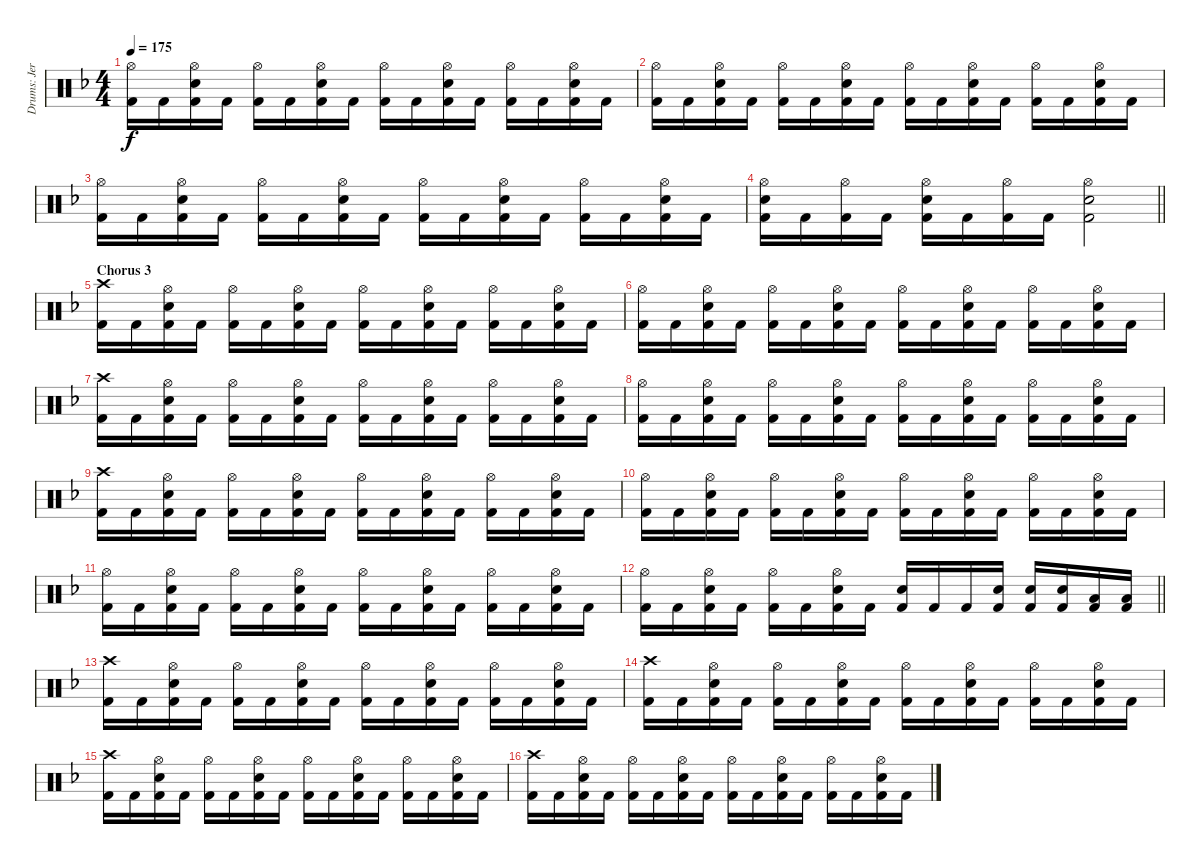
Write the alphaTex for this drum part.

\track ("Drums: Jere Luokkamäki" "Drums: Jer") {instrument percussion}
\staff {score}
\articulation defaults
\ts (4 4)
\tempo 175
\clef neutral
\ks dminor
("Hi-Hat (open)" "Kick (hit) 2").16{dy f} "Kick (hit) 2".16 ("Hi-Hat (open)" "Electric Snare (hit)" "Kick (hit) 2").16 "Kick (hit) 2".16 ("Hi-Hat (open)" "Kick (hit) 2").16 "Kick (hit) 2".16 ("Hi-Hat (open)" "Electric Snare (hit)" "Kick (hit) 2").16 "Kick (hit) 2".16 ("Hi-Hat (open)" "Kick (hit) 2").16 "Kick (hit) 2".16 ("Hi-Hat (open)" "Electric Snare (hit)" "Kick (hit) 2").16 "Kick (hit) 2".16 ("Hi-Hat (open)" "Kick (hit) 2").16 "Kick (hit) 2".16 ("Hi-Hat (open)" "Electric Snare (hit)" "Kick (hit) 2").16 "Kick (hit) 2".16 |
("Hi-Hat (open)" "Kick (hit) 2").16 "Kick (hit) 2".16 ("Hi-Hat (open)" "Electric Snare (hit)" "Kick (hit) 2").16 "Kick (hit) 2".16 ("Hi-Hat (open)" "Kick (hit) 2").16 "Kick (hit) 2".16 ("Hi-Hat (open)" "Electric Snare (hit)" "Kick (hit) 2").16 "Kick (hit) 2".16 ("Hi-Hat (open)" "Kick (hit) 2").16 "Kick (hit) 2".16 ("Hi-Hat (open)" "Electric Snare (hit)" "Kick (hit) 2").16 "Kick (hit) 2".16 ("Hi-Hat (open)" "Kick (hit) 2").16 "Kick (hit) 2".16 ("Hi-Hat (open)" "Electric Snare (hit)" "Kick (hit) 2").16 "Kick (hit) 2".16 |
("Hi-Hat (open)" "Kick (hit) 2").16 "Kick (hit) 2".16 ("Hi-Hat (open)" "Electric Snare (hit)" "Kick (hit) 2").16 "Kick (hit) 2".16 ("Hi-Hat (open)" "Kick (hit) 2").16 "Kick (hit) 2".16 ("Hi-Hat (open)" "Electric Snare (hit)" "Kick (hit) 2").16 "Kick (hit) 2".16 ("Hi-Hat (open)" "Kick (hit) 2").16 "Kick (hit) 2".16 ("Hi-Hat (open)" "Electric Snare (hit)" "Kick (hit) 2").16 "Kick (hit) 2".16 ("Hi-Hat (open)" "Kick (hit) 2").16 "Kick (hit) 2".16 ("Hi-Hat (open)" "Electric Snare (hit)" "Kick (hit) 2").16 "Kick (hit) 2".16 |
\barLineRight lightlight
("Hi-Hat (open)" "Electric Snare (hit)" "Kick (hit) 2").16 "Kick (hit) 2".16 ("Hi-Hat (open)" "Kick (hit) 2").16 "Kick (hit) 2".16 ("Hi-Hat (open)" "Electric Snare (hit)" "Kick (hit) 2").16 "Kick (hit) 2".16 ("Hi-Hat (open)" "Kick (hit) 2").16 "Kick (hit) 2".16 ("Hi-Hat (open)" "Electric Snare (hit)" "Kick (hit) 2").2 |
\section ("" "Chorus 3")
("Crash high (hit)" "Kick (hit) 2").16 "Kick (hit) 2".16 ("Hi-Hat (open)" "Electric Snare (hit)" "Kick (hit) 2").16 "Kick (hit) 2".16 ("Hi-Hat (open)" "Kick (hit) 2").16 "Kick (hit) 2".16 ("Hi-Hat (open)" "Electric Snare (hit)" "Kick (hit) 2").16 "Kick (hit) 2".16 ("Hi-Hat (open)" "Kick (hit) 2").16 "Kick (hit) 2".16 ("Hi-Hat (open)" "Electric Snare (hit)" "Kick (hit) 2").16 "Kick (hit) 2".16 ("Hi-Hat (open)" "Kick (hit) 2").16 "Kick (hit) 2".16 ("Hi-Hat (open)" "Electric Snare (hit)" "Kick (hit) 2").16 "Kick (hit) 2".16 |
("Hi-Hat (open)" "Kick (hit) 2").16 "Kick (hit) 2".16 ("Hi-Hat (open)" "Electric Snare (hit)" "Kick (hit) 2").16 "Kick (hit) 2".16 ("Hi-Hat (open)" "Kick (hit) 2").16 "Kick (hit) 2".16 ("Hi-Hat (open)" "Electric Snare (hit)" "Kick (hit) 2").16 "Kick (hit) 2".16 ("Hi-Hat (open)" "Kick (hit) 2").16 "Kick (hit) 2".16 ("Hi-Hat (open)" "Electric Snare (hit)" "Kick (hit) 2").16 "Kick (hit) 2".16 ("Hi-Hat (open)" "Kick (hit) 2").16 "Kick (hit) 2".16 ("Hi-Hat (open)" "Electric Snare (hit)" "Kick (hit) 2").16 "Kick (hit) 2".16 |
("Crash high (hit)" "Kick (hit) 2").16 "Kick (hit) 2".16 ("Hi-Hat (open)" "Electric Snare (hit)" "Kick (hit) 2").16 "Kick (hit) 2".16 ("Hi-Hat (open)" "Kick (hit) 2").16 "Kick (hit) 2".16 ("Hi-Hat (open)" "Electric Snare (hit)" "Kick (hit) 2").16 "Kick (hit) 2".16 ("Hi-Hat (open)" "Kick (hit) 2").16 "Kick (hit) 2".16 ("Hi-Hat (open)" "Electric Snare (hit)" "Kick (hit) 2").16 "Kick (hit) 2".16 ("Hi-Hat (open)" "Kick (hit) 2").16 "Kick (hit) 2".16 ("Hi-Hat (open)" "Electric Snare (hit)" "Kick (hit) 2").16 "Kick (hit) 2".16 |
("Hi-Hat (open)" "Kick (hit) 2").16 "Kick (hit) 2".16 ("Hi-Hat (open)" "Electric Snare (hit)" "Kick (hit) 2").16 "Kick (hit) 2".16 ("Hi-Hat (open)" "Kick (hit) 2").16 "Kick (hit) 2".16 ("Hi-Hat (open)" "Electric Snare (hit)" "Kick (hit) 2").16 "Kick (hit) 2".16 ("Hi-Hat (open)" "Kick (hit) 2").16 "Kick (hit) 2".16 ("Hi-Hat (open)" "Electric Snare (hit)" "Kick (hit) 2").16 "Kick (hit) 2".16 ("Hi-Hat (open)" "Kick (hit) 2").16 "Kick (hit) 2".16 ("Hi-Hat (open)" "Electric Snare (hit)" "Kick (hit) 2").16 "Kick (hit) 2".16 |
("Crash high (hit)" "Kick (hit) 2").16 "Kick (hit) 2".16 ("Hi-Hat (open)" "Electric Snare (hit)" "Kick (hit) 2").16 "Kick (hit) 2".16 ("Hi-Hat (open)" "Kick (hit) 2").16 "Kick (hit) 2".16 ("Hi-Hat (open)" "Electric Snare (hit)" "Kick (hit) 2").16 "Kick (hit) 2".16 ("Hi-Hat (open)" "Kick (hit) 2").16 "Kick (hit) 2".16 ("Hi-Hat (open)" "Electric Snare (hit)" "Kick (hit) 2").16 "Kick (hit) 2".16 ("Hi-Hat (open)" "Kick (hit) 2").16 "Kick (hit) 2".16 ("Hi-Hat (open)" "Electric Snare (hit)" "Kick (hit) 2").16 "Kick (hit) 2".16 |
("Hi-Hat (open)" "Kick (hit) 2").16 "Kick (hit) 2".16 ("Hi-Hat (open)" "Electric Snare (hit)" "Kick (hit) 2").16 "Kick (hit) 2".16 ("Hi-Hat (open)" "Kick (hit) 2").16 "Kick (hit) 2".16 ("Hi-Hat (open)" "Electric Snare (hit)" "Kick (hit) 2").16 "Kick (hit) 2".16 ("Hi-Hat (open)" "Kick (hit) 2").16 "Kick (hit) 2".16 ("Hi-Hat (open)" "Electric Snare (hit)" "Kick (hit) 2").16 "Kick (hit) 2".16 ("Hi-Hat (open)" "Kick (hit) 2").16 "Kick (hit) 2".16 ("Hi-Hat (open)" "Electric Snare (hit)" "Kick (hit) 2").16 "Kick (hit) 2".16 |
("Hi-Hat (open)" "Kick (hit) 2").16 "Kick (hit) 2".16 ("Hi-Hat (open)" "Electric Snare (hit)" "Kick (hit) 2").16 "Kick (hit) 2".16 ("Hi-Hat (open)" "Kick (hit) 2").16 "Kick (hit) 2".16 ("Hi-Hat (open)" "Electric Snare (hit)" "Kick (hit) 2").16 "Kick (hit) 2".16 ("Hi-Hat (open)" "Kick (hit) 2").16 "Kick (hit) 2".16 ("Hi-Hat (open)" "Electric Snare (hit)" "Kick (hit) 2").16 "Kick (hit) 2".16 ("Hi-Hat (open)" "Kick (hit) 2").16 "Kick (hit) 2".16 ("Hi-Hat (open)" "Electric Snare (hit)" "Kick (hit) 2").16 "Kick (hit) 2".16 |
\barLineRight lightlight
("Hi-Hat (open)" "Kick (hit) 2").16 "Kick (hit) 2".16 ("Hi-Hat (open)" "Electric Snare (hit)" "Kick (hit) 2").16 "Kick (hit) 2".16 ("Hi-Hat (open)" "Kick (hit) 2").16 "Kick (hit) 2".16 ("Hi-Hat (open)" "Electric Snare (hit)" "Kick (hit) 2").16 "Kick (hit) 2".16 ("Electric Snare (hit)" "Kick (hit) 2").16 "Kick (hit) 2".16 "Kick (hit) 2".16 ("Electric Snare (hit)" "Kick (hit) 2").16 ("Electric Snare (hit)" "Kick (hit) 2").16 ("Electric Snare (hit)" "Kick (hit) 2").16 ("Low Tom (hit)" "Kick (hit) 2").16 ("Low Tom (hit)" "Kick (hit) 2").16 |
("Crash high (hit)" "Kick (hit) 2").16 "Kick (hit) 2".16 ("Hi-Hat (open)" "Electric Snare (hit)" "Kick (hit) 2").16 "Kick (hit) 2".16 ("Hi-Hat (open)" "Kick (hit) 2").16 "Kick (hit) 2".16 ("Hi-Hat (open)" "Electric Snare (hit)" "Kick (hit) 2").16 "Kick (hit) 2".16 ("Hi-Hat (open)" "Kick (hit) 2").16 "Kick (hit) 2".16 ("Hi-Hat (open)" "Electric Snare (hit)" "Kick (hit) 2").16 "Kick (hit) 2".16 ("Hi-Hat (open)" "Kick (hit) 2").16 "Kick (hit) 2".16 ("Hi-Hat (open)" "Electric Snare (hit)" "Kick (hit) 2").16 "Kick (hit) 2".16 |
("Crash high (hit)" "Kick (hit) 2").16 "Kick (hit) 2".16 ("Hi-Hat (open)" "Electric Snare (hit)" "Kick (hit) 2").16 "Kick (hit) 2".16 ("Hi-Hat (open)" "Kick (hit) 2").16 "Kick (hit) 2".16 ("Hi-Hat (open)" "Electric Snare (hit)" "Kick (hit) 2").16 "Kick (hit) 2".16 ("Hi-Hat (open)" "Kick (hit) 2").16 "Kick (hit) 2".16 ("Hi-Hat (open)" "Electric Snare (hit)" "Kick (hit) 2").16 "Kick (hit) 2".16 ("Hi-Hat (open)" "Kick (hit) 2").16 "Kick (hit) 2".16 ("Hi-Hat (open)" "Electric Snare (hit)" "Kick (hit) 2").16 "Kick (hit) 2".16 |
("Crash high (hit)" "Kick (hit) 2").16 "Kick (hit) 2".16 ("Hi-Hat (open)" "Electric Snare (hit)" "Kick (hit) 2").16 "Kick (hit) 2".16 ("Hi-Hat (open)" "Kick (hit) 2").16 "Kick (hit) 2".16 ("Hi-Hat (open)" "Electric Snare (hit)" "Kick (hit) 2").16 "Kick (hit) 2".16 ("Hi-Hat (open)" "Kick (hit) 2").16 "Kick (hit) 2".16 ("Hi-Hat (open)" "Electric Snare (hit)" "Kick (hit) 2").16 "Kick (hit) 2".16 ("Hi-Hat (open)" "Kick (hit) 2").16 "Kick (hit) 2".16 ("Hi-Hat (open)" "Electric Snare (hit)" "Kick (hit) 2").16 "Kick (hit) 2".16 |
("Crash high (hit)" "Kick (hit) 2").16 "Kick (hit) 2".16 ("Hi-Hat (open)" "Electric Snare (hit)" "Kick (hit) 2").16 "Kick (hit) 2".16 ("Hi-Hat (open)" "Kick (hit) 2").16 "Kick (hit) 2".16 ("Hi-Hat (open)" "Electric Snare (hit)" "Kick (hit) 2").16 "Kick (hit) 2".16 ("Hi-Hat (open)" "Kick (hit) 2").16 "Kick (hit) 2".16 ("Hi-Hat (open)" "Electric Snare (hit)" "Kick (hit) 2").16 "Kick (hit) 2".16 ("Hi-Hat (open)" "Kick (hit) 2").16 "Kick (hit) 2".16 ("Hi-Hat (open)" "Electric Snare (hit)" "Kick (hit) 2").16 "Kick (hit) 2".16
